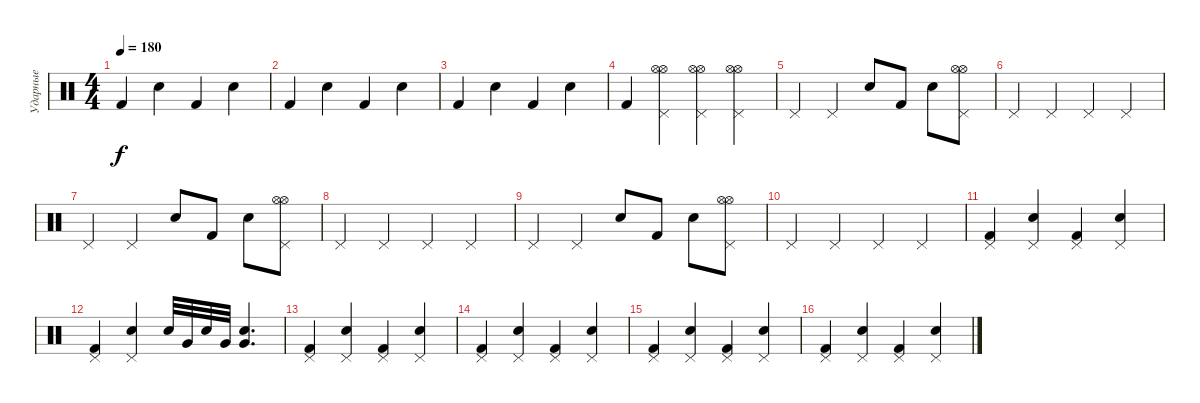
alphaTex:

\track ("Ударные" "Ударные") {instrument percussion}
\staff {score}
\articulation defaults
\ts (4 4)
\tempo 180
\clef neutral
\ks c "Kick (hit) 2".4{dy f} "Electric Snare (hit)".4 "Kick (hit) 2".4 "Electric Snare (hit)".4
|
"Kick (hit) 2".4 "Electric Snare (hit)".4 "Kick (hit) 2".4 "Electric Snare (hit)".4 |
"Kick (hit) 2".4 "Electric Snare (hit)".4 "Kick (hit) 2".4 "Electric Snare (hit)".4 |
"Kick (hit) 2".4 ("Hi-Hat (open)" "Pedal Hi-Hat (hit)" "Hi-Hat (open)").4 ("Hi-Hat (open)" "Pedal Hi-Hat (hit)" "Hi-Hat (open)").4 ("Hi-Hat (open)" "Pedal Hi-Hat (hit)" "Hi-Hat (open)").4 |
"Pedal Hi-Hat (hit)".4 "Pedal Hi-Hat (hit)".4 "Electric Snare (hit)".8 "Kick (hit) 2".8 "Electric Snare (hit)".8 ("Hi-Hat (open)" "Pedal Hi-Hat (hit)" "Hi-Hat (open)").8 |
"Pedal Hi-Hat (hit)".4 "Pedal Hi-Hat (hit)".4 "Pedal Hi-Hat (hit)".4 "Pedal Hi-Hat (hit)".4 |
"Pedal Hi-Hat (hit)".4 "Pedal Hi-Hat (hit)".4 "Electric Snare (hit)".8 "Kick (hit) 2".8 "Electric Snare (hit)".8 ("Hi-Hat (open)" "Pedal Hi-Hat (hit)" "Hi-Hat (open)").8 |
"Pedal Hi-Hat (hit)".4 "Pedal Hi-Hat (hit)".4 "Pedal Hi-Hat (hit)".4 "Pedal Hi-Hat (hit)".4 |
"Pedal Hi-Hat (hit)".4 "Pedal Hi-Hat (hit)".4 "Electric Snare (hit)".8 "Kick (hit) 2".8 "Electric Snare (hit)".8 ("Hi-Hat (open)" "Pedal Hi-Hat (hit)" "Hi-Hat (open)").8 |
"Pedal Hi-Hat (hit)".4 "Pedal Hi-Hat (hit)".4 "Pedal Hi-Hat (hit)".4 "Pedal Hi-Hat (hit)".4 |
("Kick (hit) 2" "Pedal Hi-Hat (hit)").4 ("Electric Snare (hit)" "Pedal Hi-Hat (hit)").4 ("Kick (hit) 2" "Pedal Hi-Hat (hit)").4 ("Electric Snare (hit)" "Pedal Hi-Hat (hit)").4 |
("Kick (hit) 2" "Pedal Hi-Hat (hit)").4 ("Electric Snare (hit)" "Pedal Hi-Hat (hit)").4 "Electric Snare (hit)".32 "Very Low Tom (hit)".32 "Electric Snare (hit)".32 "Very Low Tom (hit)".32 ("Very Low Tom (hit)" "Electric Snare (hit)").4{d} |
("Kick (hit) 2" "Pedal Hi-Hat (hit)").4 ("Electric Snare (hit)" "Pedal Hi-Hat (hit)").4 ("Kick (hit) 2" "Pedal Hi-Hat (hit)").4 ("Electric Snare (hit)" "Pedal Hi-Hat (hit)").4 |
("Kick (hit) 2" "Pedal Hi-Hat (hit)").4 ("Electric Snare (hit)" "Pedal Hi-Hat (hit)").4 ("Kick (hit) 2" "Pedal Hi-Hat (hit)").4 ("Electric Snare (hit)" "Pedal Hi-Hat (hit)").4 |
("Kick (hit) 2" "Pedal Hi-Hat (hit)").4 ("Electric Snare (hit)" "Pedal Hi-Hat (hit)").4 ("Kick (hit) 2" "Pedal Hi-Hat (hit)").4 ("Electric Snare (hit)" "Pedal Hi-Hat (hit)").4 |
("Kick (hit) 2" "Pedal Hi-Hat (hit)").4 ("Electric Snare (hit)" "Pedal Hi-Hat (hit)").4 ("Kick (hit) 2" "Pedal Hi-Hat (hit)").4 ("Electric Snare (hit)" "Pedal Hi-Hat (hit)").4
